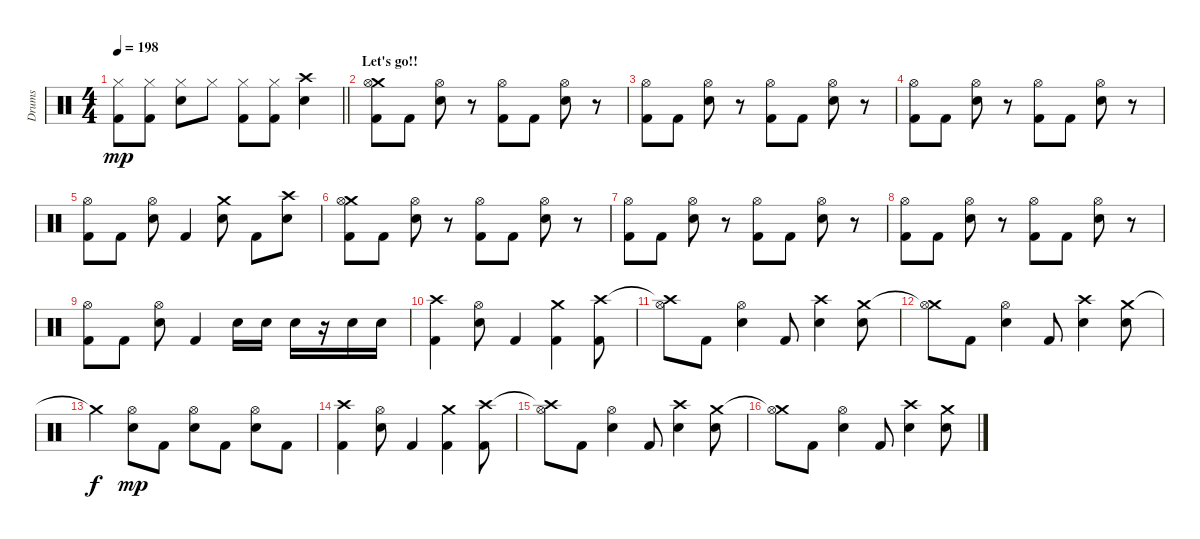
\track ("Drums" "Drums") {instrument percussion}
\staff {score}
\articulation defaults
\ts (4 4)
\tempo 198
\clef neutral
\barLineRight lightlight
\ks c
("Hi-Hat (closed)" "Kick (hit) 2").8{dy mp} ("Hi-Hat (closed)" "Kick (hit) 2").8 ("Hi-Hat (closed)" "Snare (hit) 2").8 "Hi-Hat (closed)".8 ("Hi-Hat (closed)" "Kick (hit) 2").8 ("Hi-Hat (closed)" "Kick (hit) 2").8 ("Crash high (hit)" "Snare (hit) 2").4 |
\section ("" "Let's go!!")
("Crash medium (hit)" "Hi-Hat (open)" "Kick (hit) 2").8 "Kick (hit) 2".8 ("Hi-Hat (open)" "Snare (hit) 2").8 r.8 ("Hi-Hat (open)" "Kick (hit) 2").8 "Kick (hit) 2".8 ("Hi-Hat (open)" "Snare (hit) 2").8 r.8 |
("Hi-Hat (open)" "Kick (hit) 2").8 "Kick (hit) 2".8 ("Hi-Hat (open)" "Snare (hit) 2").8 r.8 ("Hi-Hat (open)" "Kick (hit) 2").8 "Kick (hit) 2".8 ("Hi-Hat (open)" "Snare (hit) 2").8 r.8 |
("Hi-Hat (open)" "Kick (hit) 2").8 "Kick (hit) 2".8 ("Hi-Hat (open)" "Snare (hit) 2").8 r.8 ("Hi-Hat (open)" "Kick (hit) 2").8 "Kick (hit) 2".8 ("Hi-Hat (open)" "Snare (hit) 2").8 r.8 |
("Hi-Hat (open)" "Kick (hit) 2").8 "Kick (hit) 2".8 ("Hi-Hat (open)" "Snare (hit) 2").8 "Kick (hit) 2".4 ("Crash medium (hit)" "Snare (hit) 2").8 "Kick (hit) 2".8 ("Crash high (hit)" "Snare (hit) 2").8 |
("Crash medium (hit)" "Hi-Hat (open)" "Kick (hit) 2").8 "Kick (hit) 2".8 ("Hi-Hat (open)" "Snare (hit) 2").8 r.8 ("Hi-Hat (open)" "Kick (hit) 2").8 "Kick (hit) 2".8 ("Hi-Hat (open)" "Snare (hit) 2").8 r.8 |
("Hi-Hat (open)" "Kick (hit) 2").8 "Kick (hit) 2".8 ("Hi-Hat (open)" "Snare (hit) 2").8 r.8 ("Hi-Hat (open)" "Kick (hit) 2").8 "Kick (hit) 2".8 ("Hi-Hat (open)" "Snare (hit) 2").8 r.8 |
("Hi-Hat (open)" "Kick (hit) 2").8 "Kick (hit) 2".8 ("Hi-Hat (open)" "Snare (hit) 2").8 r.8 ("Hi-Hat (open)" "Kick (hit) 2").8 "Kick (hit) 2".8 ("Hi-Hat (open)" "Snare (hit) 2").8 r.8 |
("Hi-Hat (open)" "Kick (hit) 2").8 "Kick (hit) 2".8 ("Hi-Hat (open)" "Snare (hit) 2").8 "Kick (hit) 2".4 "Snare (hit) 2".16 "Snare (hit) 2".16 "Snare (hit) 2".16 r.16 "Snare (hit) 2".16 "Snare (hit) 2".16 |
("Crash high (hit)" "Kick (hit) 2").4 ("Hi-Hat (open)" "Snare (hit) 2").8 "Kick (hit) 2".4 ("Crash medium (hit)" "Kick (hit) 2").4 ("Crash high (hit)" "Kick (hit) 2").8 |
("Crash high (hit)"{t} "Hi-Hat (open)").8 "Kick (hit) 2".8 ("Hi-Hat (open)" "Snare (hit) 2").4 "Kick (hit) 2".8 ("Crash high (hit)" "Snare (hit) 2").4 ("Crash medium (hit)" "Snare (hit) 2").8 |
("Crash medium (hit)"{t} "Hi-Hat (open)").8 "Kick (hit) 2".8 ("Hi-Hat (open)" "Snare (hit) 2").4 "Kick (hit) 2".8 ("Crash high (hit)" "Snare (hit) 2").4 ("Crash medium (hit)" "Snare (hit) 2").8 |
"Crash medium (hit)"{t}.4{dy f} ("Hi-Hat (open)" "Snare (hit) 2").8{dy mp} "Kick (hit) 2".8 ("Hi-Hat (open)" "Snare (hit) 2").8 "Kick (hit) 2".8 ("Hi-Hat (open)" "Snare (hit) 2").8 "Kick (hit) 2".8 |
("Crash high (hit)" "Kick (hit) 2").4 ("Hi-Hat (open)" "Snare (hit) 2").8 "Kick (hit) 2".4 ("Crash medium (hit)" "Kick (hit) 2").4 ("Crash high (hit)" "Kick (hit) 2").8 |
("Crash high (hit)"{t} "Hi-Hat (open)").8 "Kick (hit) 2".8 ("Hi-Hat (open)" "Snare (hit) 2").4 "Kick (hit) 2".8 ("Crash high (hit)" "Snare (hit) 2").4 ("Crash medium (hit)" "Snare (hit) 2").8 |
("Crash medium (hit)"{t} "Hi-Hat (open)").8 "Kick (hit) 2".8 ("Hi-Hat (open)" "Snare (hit) 2").4 "Kick (hit) 2".8 ("Crash high (hit)" "Snare (hit) 2").4 ("Crash medium (hit)" "Snare (hit) 2").8
